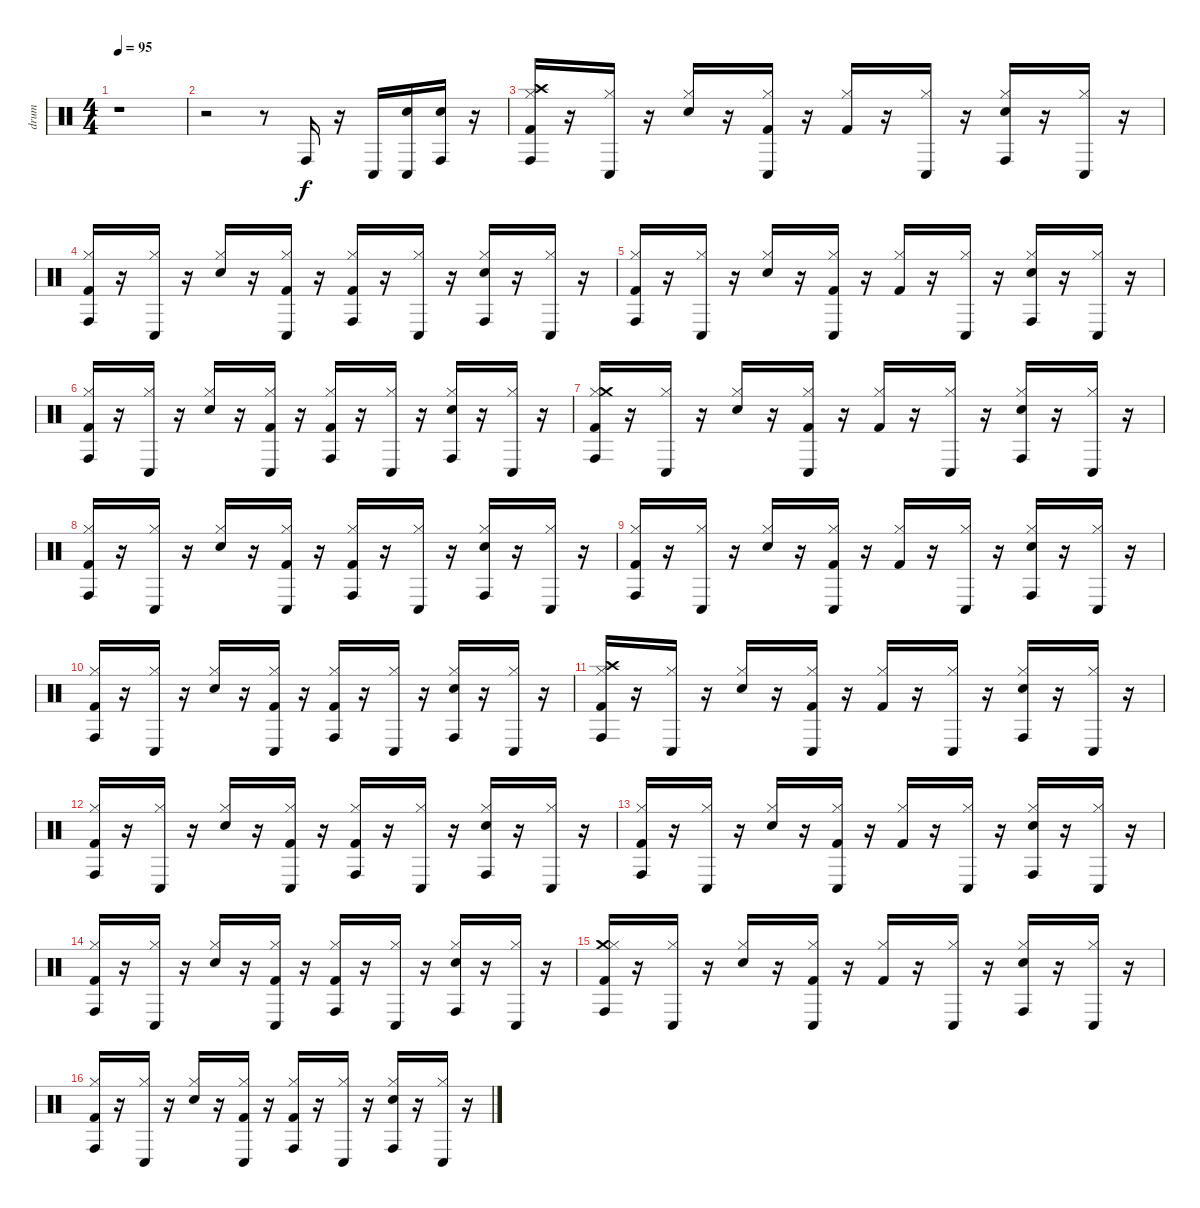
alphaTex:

\track ("drum" "drum") {instrument percussion}
\staff {score}
\articulation defaults
\ts (4 4)
\tempo 95
\clef neutral
\ks c
r.1{dy f} |
r.2 r.8 "Conga high (hit)".16 r.16 "Conga low (hit)".16 ("Snare (hit)" "Conga low (hit)").16 ("Snare (hit)" "Conga high (hit)").16 r.16 |
("Hi-Hat (closed)" "Kick (hit) 2" "Conga high (hit)" "Crash high (hit)").16 r.16 ("Conga low (hit)" "Hi-Hat (closed)").16 r.16 ("Hi-Hat (closed)" "Snare (hit) 2").16 r.16 ("Kick (hit) 2" "Conga low (hit)" "Hi-Hat (closed)").16 r.16 ("Kick (hit) 2" "Hi-Hat (closed)").16 r.16 ("Conga low (hit)" "Hi-Hat (closed)").16 r.16 ("Snare (hit) 2" "Conga high (hit)" "Hi-Hat (closed)").16 r.16 ("Hi-Hat (closed)" "Conga low (hit)").16 r.16 |
("Hi-Hat (closed)" "Conga high (hit)" "Kick (hit) 2").16 r.16 ("Hi-Hat (closed)" "Conga low (hit)").16 r.16 ("Snare (hit) 2" "Hi-Hat (closed)").16 r.16 ("Hi-Hat (closed)" "Conga low (hit)" "Kick (hit) 2").16 r.16 ("Hi-Hat (closed)" "Conga high (hit)" "Kick (hit) 2").16 r.16 ("Hi-Hat (closed)" "Conga low (hit)").16 r.16 ("Snare (hit) 2" "Conga high (hit)" "Hi-Hat (closed)").16 r.16 ("Hi-Hat (closed)" "Conga low (hit)").16 r.16 |
("Conga high (hit)" "Kick (hit) 2" "Hi-Hat (closed)").16 r.16 ("Conga low (hit)" "Hi-Hat (closed)").16 r.16 ("Hi-Hat (closed)" "Snare (hit) 2").16 r.16 ("Kick (hit) 2" "Hi-Hat (closed)" "Conga low (hit)").16 r.16 ("Kick (hit) 2" "Hi-Hat (closed)").16 r.16 ("Hi-Hat (closed)" "Conga low (hit)").16 r.16 ("Snare (hit) 2" "Conga high (hit)" "Hi-Hat (closed)").16 r.16 ("Conga low (hit)" "Hi-Hat (closed)").16 r.16 |
("Hi-Hat (closed)" "Conga high (hit)" "Kick (hit) 2").16 r.16 ("Hi-Hat (closed)" "Conga low (hit)").16 r.16 ("Snare (hit) 2" "Hi-Hat (closed)").16 r.16 ("Kick (hit) 2" "Conga low (hit)" "Hi-Hat (closed)").16 r.16 ("Conga high (hit)" "Hi-Hat (closed)" "Kick (hit) 2").16 r.16 ("Conga low (hit)" "Hi-Hat (closed)").16 r.16 ("Snare (hit) 2" "Hi-Hat (closed)" "Conga high (hit)").16 r.16 ("Conga low (hit)" "Hi-Hat (closed)").16 r.16 |
("Hi-Hat (closed)" "Kick (hit) 2" "Conga high (hit)" "Crash medium (hit)").16 r.16 ("Hi-Hat (closed)" "Conga low (hit)").16 r.16 ("Snare (hit) 2" "Hi-Hat (closed)").16 r.16 ("Kick (hit) 2" "Conga low (hit)" "Hi-Hat (closed)").16 r.16 ("Hi-Hat (closed)" "Kick (hit) 2").16 r.16 ("Conga low (hit)" "Hi-Hat (closed)").16 r.16 ("Hi-Hat (closed)" "Snare (hit) 2" "Conga high (hit)").16 r.16 ("Hi-Hat (closed)" "Conga low (hit)").16 r.16 |
("Kick (hit) 2" "Conga high (hit)" "Hi-Hat (closed)").16 r.16 ("Hi-Hat (closed)" "Conga low (hit)").16 r.16 ("Snare (hit) 2" "Hi-Hat (closed)").16 r.16 ("Kick (hit) 2" "Conga low (hit)" "Hi-Hat (closed)").16 r.16 ("Kick (hit) 2" "Conga high (hit)" "Hi-Hat (closed)").16 r.16 ("Conga low (hit)" "Hi-Hat (closed)").16 r.16 ("Conga high (hit)" "Snare (hit) 2" "Hi-Hat (closed)").16 r.16 ("Conga low (hit)" "Hi-Hat (closed)").16 r.16 |
("Kick (hit) 2" "Hi-Hat (closed)" "Conga high (hit)").16 r.16 ("Hi-Hat (closed)" "Conga low (hit)").16 r.16 ("Hi-Hat (closed)" "Snare (hit) 2").16 r.16 ("Conga low (hit)" "Kick (hit) 2" "Hi-Hat (closed)").16 r.16 ("Hi-Hat (closed)" "Kick (hit) 2").16 r.16 ("Conga low (hit)" "Hi-Hat (closed)").16 r.16 ("Snare (hit) 2" "Hi-Hat (closed)" "Conga high (hit)").16 r.16 ("Hi-Hat (closed)" "Conga low (hit)").16 r.16 |
("Conga high (hit)" "Kick (hit) 2" "Hi-Hat (closed)").16 r.16 ("Hi-Hat (closed)" "Conga low (hit)").16 r.16 ("Hi-Hat (closed)" "Snare (hit) 2").16 r.16 ("Kick (hit) 2" "Conga low (hit)" "Hi-Hat (closed)").16 r.16 ("Conga high (hit)" "Hi-Hat (closed)" "Kick (hit) 2").16 r.16 ("Hi-Hat (closed)" "Conga low (hit)").16 r.16 ("Conga high (hit)" "Hi-Hat (closed)" "Snare (hit) 2").16 r.16 ("Conga low (hit)" "Hi-Hat (closed)").16 r.16 |
("Kick (hit) 2" "Crash high (hit)" "Conga high (hit)" "Hi-Hat (closed)").16 r.16 ("Hi-Hat (closed)" "Conga low (hit)").16 r.16 ("Hi-Hat (closed)" "Snare (hit) 2").16 r.16 ("Kick (hit) 2" "Conga low (hit)" "Hi-Hat (closed)").16 r.16 ("Hi-Hat (closed)" "Kick (hit) 2").16 r.16 ("Conga low (hit)" "Hi-Hat (closed)").16 r.16 ("Hi-Hat (closed)" "Snare (hit) 2" "Conga high (hit)").16 r.16 ("Hi-Hat (closed)" "Conga low (hit)").16 r.16 |
("Conga high (hit)" "Kick (hit) 2" "Hi-Hat (closed)").16 r.16 ("Hi-Hat (closed)" "Conga low (hit)").16 r.16 ("Snare (hit) 2" "Hi-Hat (closed)").16 r.16 ("Conga low (hit)" "Kick (hit) 2" "Hi-Hat (closed)").16 r.16 ("Conga high (hit)" "Hi-Hat (closed)" "Kick (hit) 2").16 r.16 ("Conga low (hit)" "Hi-Hat (closed)").16 r.16 ("Conga high (hit)" "Snare (hit) 2" "Hi-Hat (closed)").16 r.16 ("Hi-Hat (closed)" "Conga low (hit)").16 r.16 |
("Conga high (hit)" "Kick (hit) 2" "Hi-Hat (closed)").16 r.16 ("Hi-Hat (closed)" "Conga low (hit)").16 r.16 ("Hi-Hat (closed)" "Snare (hit) 2").16 r.16 ("Conga low (hit)" "Kick (hit) 2" "Hi-Hat (closed)").16 r.16 ("Kick (hit) 2" "Hi-Hat (closed)").16 r.16 ("Conga low (hit)" "Hi-Hat (closed)").16 r.16 ("Conga high (hit)" "Hi-Hat (closed)" "Snare (hit) 2").16 r.16 ("Hi-Hat (closed)" "Conga low (hit)").16 r.16 |
("Hi-Hat (closed)" "Conga high (hit)" "Kick (hit) 2").16 r.16 ("Hi-Hat (closed)" "Conga low (hit)").16 r.16 ("Hi-Hat (closed)" "Snare (hit) 2").16 r.16 ("Hi-Hat (closed)" "Kick (hit) 2" "Conga low (hit)").16 r.16 ("Hi-Hat (closed)" "Conga high (hit)" "Kick (hit) 2").16 r.16 ("Conga low (hit)" "Hi-Hat (closed)").16 r.16 ("Snare (hit) 2" "Conga high (hit)" "Hi-Hat (closed)").16 r.16 ("Hi-Hat (closed)" "Conga low (hit)").16 r.16 |
("Crash medium (hit)" "Kick (hit) 2" "Hi-Hat (closed)" "Conga high (hit)").16 r.16 ("Hi-Hat (closed)" "Conga low (hit)").16 r.16 ("Snare (hit) 2" "Hi-Hat (closed)").16 r.16 ("Kick (hit) 2" "Hi-Hat (closed)" "Conga low (hit)").16 r.16 ("Hi-Hat (closed)" "Kick (hit) 2").16 r.16 ("Hi-Hat (closed)" "Conga low (hit)").16 r.16 ("Conga high (hit)" "Snare (hit) 2" "Hi-Hat (closed)").16 r.16 ("Hi-Hat (closed)" "Conga low (hit)").16 r.16 |
("Kick (hit) 2" "Conga high (hit)" "Hi-Hat (closed)").16 r.16 ("Conga low (hit)" "Hi-Hat (closed)").16 r.16 ("Snare (hit) 2" "Hi-Hat (closed)").16 r.16 ("Kick (hit) 2" "Conga low (hit)" "Hi-Hat (closed)").16 r.16 ("Hi-Hat (closed)" "Conga high (hit)" "Kick (hit) 2").16 r.16 ("Hi-Hat (closed)" "Conga low (hit)").16 r.16 ("Hi-Hat (closed)" "Conga high (hit)" "Snare (hit) 2").16 r.16 ("Hi-Hat (closed)" "Conga low (hit)").16 r.16
